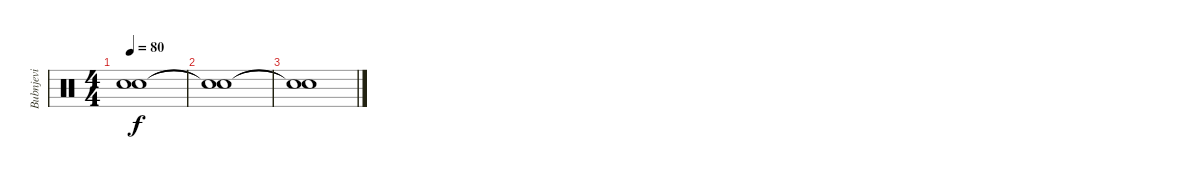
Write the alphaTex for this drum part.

\track ("Bubnjevi" "Bubnjevi") {instrument percussion}
\staff {score}
\articulation defaults
\ts (4 4)
\tempo 80
\clef neutral
\ks c
("Snare (hit)"{t} "Snare (hit)"{t}).1{dy f} |
("Snare (hit)"{t} "Snare (hit)"{t}).1 |
("Snare (hit)"{t} "Snare (hit)"{t}).1
